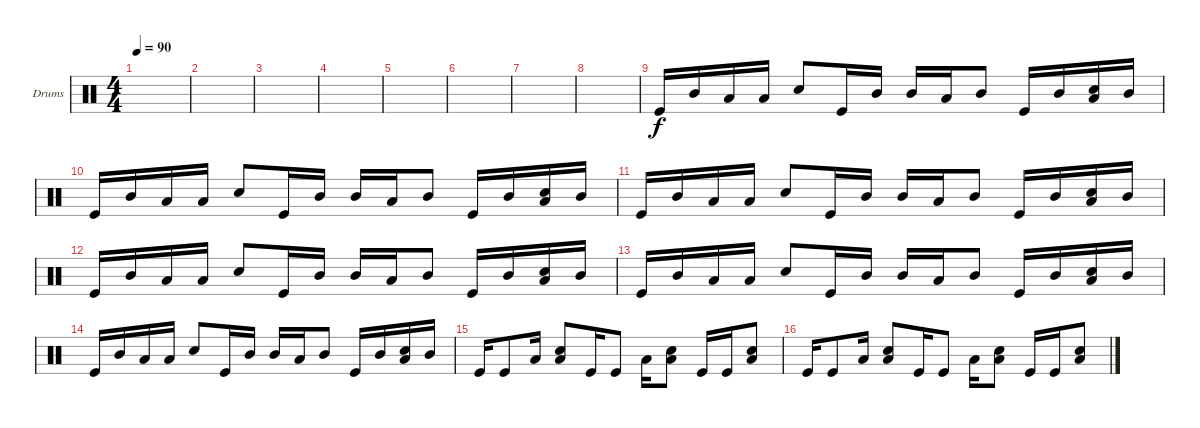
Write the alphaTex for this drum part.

\bracketExtendMode groupsimilarinstruments
\firstSystemTrackNameOrientation horizontal
\otherSystemsTrackNameOrientation horizontal
\track ("Drumkit" "Drums") {instrument percussion}
\staff {score}
\articulation defaults
\ts (4 4)
\beaming (8 2 2 2 2)
\tempo 90
\clef neutral
\scale
0.472222
\ks c
|
\scale
0.263889 |
\scale
0.263889 |
\scale
0.333333 |
\scale
0.333333 |
\scale
0.333333 |
\scale
0.333333 |
\scale
0.333333 |
\scale
0.333333 "Kick (hit)".16 "Mid Tom (hit)".16 "Low Tom (hit)".16 "Low Tom (hit)".16 "Snare (hit) 2".8 "Kick (hit)".16 "Mid Tom (hit)".16 "Mid Tom (hit)".16 "Low Tom (hit)".16 "Mid Tom (hit)".8 "Kick (hit)".16 "Mid Tom (hit)".16 ("Low Tom (hit)" "Snare (hit) 2").16 "Mid Tom (hit)".16 |
\scale
0.333333 "Kick (hit)".16 "Mid Tom (hit)".16 "Low Tom (hit)".16 "Low Tom (hit)".16 "Snare (hit) 2".8 "Kick (hit)".16 "Mid Tom (hit)".16 "Mid Tom (hit)".16 "Low Tom (hit)".16 "Mid Tom (hit)".8 "Kick (hit)".16 "Mid Tom (hit)".16 ("Low Tom (hit)" "Snare (hit) 2").16 "Mid Tom (hit)".16 |
\scale
0.333333 "Kick (hit)".16 "Mid Tom (hit)".16 "Low Tom (hit)".16 "Low Tom (hit)".16 "Snare (hit) 2".8 "Kick (hit)".16 "Mid Tom (hit)".16 "Mid Tom (hit)".16 "Low Tom (hit)".16 "Mid Tom (hit)".8 "Kick (hit)".16 "Mid Tom (hit)".16 ("Low Tom (hit)" "Snare (hit) 2").16 "Mid Tom (hit)".16 |
\scale
0.333333 "Kick (hit)".16 "Mid Tom (hit)".16 "Low Tom (hit)".16 "Low Tom (hit)".16 "Snare (hit) 2".8 "Kick (hit)".16 "Mid Tom (hit)".16 "Mid Tom (hit)".16 "Low Tom (hit)".16 "Mid Tom (hit)".8 "Kick (hit)".16 "Mid Tom (hit)".16 ("Low Tom (hit)" "Snare (hit) 2").16 "Mid Tom (hit)".16 |
\scale
0.333333 "Kick (hit)".16 "Mid Tom (hit)".16 "Low Tom (hit)".16 "Low Tom (hit)".16 "Snare (hit) 2".8 "Kick (hit)".16 "Mid Tom (hit)".16 "Mid Tom (hit)".16 "Low Tom (hit)".16 "Mid Tom (hit)".8 "Kick (hit)".16 "Mid Tom (hit)".16 ("Low Tom (hit)" "Snare (hit) 2").16 "Mid Tom (hit)".16 |
\scale
0.333333 "Kick (hit)".16 "Mid Tom (hit)".16 "Low Tom (hit)".16 "Low Tom (hit)".16 "Snare (hit) 2".8 "Kick (hit)".16 "Mid Tom (hit)".16 "Mid Tom (hit)".16 "Low Tom (hit)".16 "Mid Tom (hit)".8 "Kick (hit)".16 "Mid Tom (hit)".16 ("Low Tom (hit)" "Snare (hit) 2").16 "Mid Tom (hit)".16 |
\scale
0.333333 "Kick (hit)".16 "Kick (hit)".8 "Low Tom (hit)".16 ("Low Tom (hit)" "Snare (hit) 2").8 "Kick (hit)".16 "Kick (hit)".8 "Low Tom (hit)".16 ("Low Tom (hit)" "Snare (hit) 2").8 "Kick (hit)".16 "Kick (hit)".16 ("Snare (hit) 2" "Low Tom (hit)").8 |
\scale
0.333333 "Kick (hit)".16 "Kick (hit)".8 "Low Tom (hit)".16 ("Low Tom (hit)" "Snare (hit) 2").8 "Kick (hit)".16 "Kick (hit)".8 "Low Tom (hit)".16 ("Low Tom (hit)" "Snare (hit) 2").8 "Kick (hit)".16 "Kick (hit)".16 ("Snare (hit) 2" "Low Tom (hit)").8
